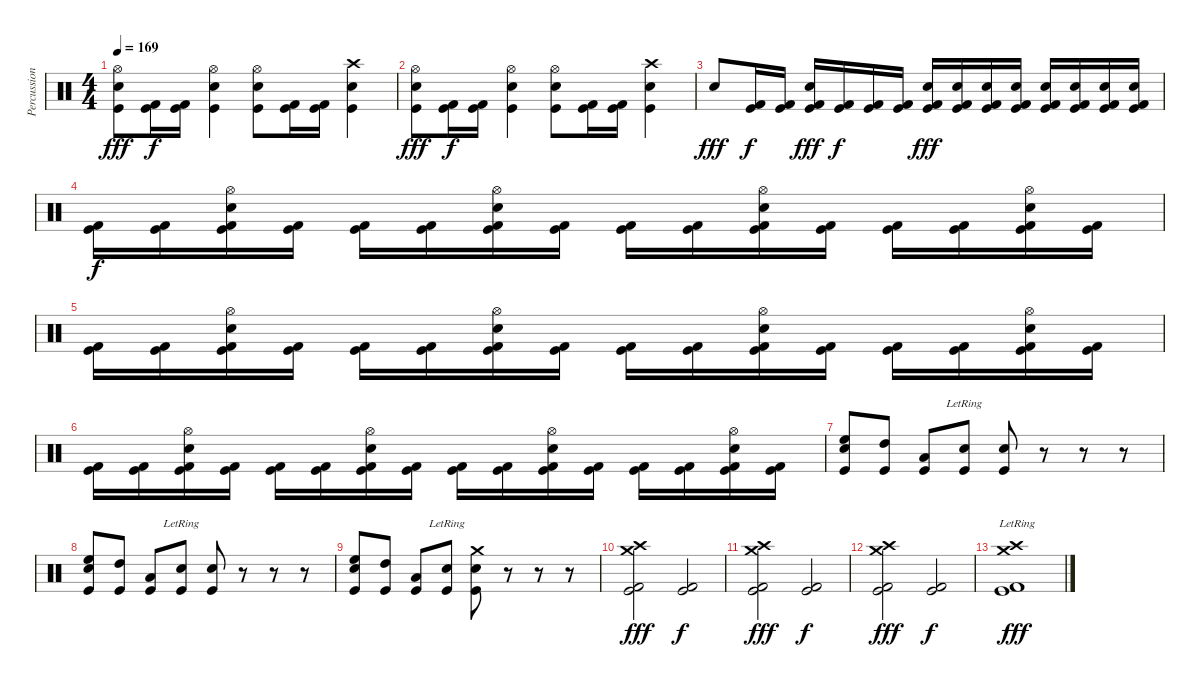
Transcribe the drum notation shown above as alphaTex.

\track ("Percussion" "Percussion") {instrument percussion}
\staff {score}
\articulation defaults
\ts (4 4)
\tempo 169
\clef neutral
\ks c
("Hi-Hat (open)" "Electric Snare (hit)" "Kick (hit)").8{dy fff} ("Kick (hit) 2" "Kick (hit)").16{dy f} ("Kick (hit) 2" "Kick (hit)").16 ("Hi-Hat (open)" "Electric Snare (hit)" "Kick (hit)").4 ("Hi-Hat (open)" "Electric Snare (hit)" "Kick (hit)").8 ("Kick (hit) 2" "Kick (hit)").16 ("Kick (hit) 2" "Kick (hit)").16 ("Crash high (hit)" "Electric Snare (hit)" "Kick (hit)").4 |
("Hi-Hat (open)" "Electric Snare (hit)" "Kick (hit)").8{dy fff} ("Kick (hit) 2" "Kick (hit)").16{dy f} ("Kick (hit) 2" "Kick (hit)").16 ("Hi-Hat (open)" "Electric Snare (hit)" "Kick (hit)").4 ("Hi-Hat (open)" "Electric Snare (hit)" "Kick (hit)").8 ("Kick (hit) 2" "Kick (hit)").16 ("Kick (hit) 2" "Kick (hit)").16 ("Crash high (hit)" "Electric Snare (hit)" "Kick (hit)").4 |
"Electric Snare (hit)".8{dy fff} ("Kick (hit) 2" "Kick (hit)").16{dy f} ("Kick (hit) 2" "Kick (hit)").16 ("Kick (hit) 2" "Electric Snare (hit)" "Kick (hit)").16{dy fff} ("Kick (hit) 2" "Kick (hit)").16{dy f} ("Kick (hit) 2" "Kick (hit)").16 ("Kick (hit) 2" "Kick (hit)").16 ("Kick (hit) 2" "Snare (hit) 2" "Kick (hit)").16{dy fff} ("Kick (hit) 2" "Snare (hit) 2" "Kick (hit)").16 ("Kick (hit) 2" "Snare (hit) 2" "Kick (hit)").16 ("Kick (hit) 2" "Snare (hit) 2" "Kick (hit)").16 ("Kick (hit) 2" "Snare (hit) 2" "Kick (hit)").16 ("Kick (hit) 2" "Snare (hit) 2" "Kick (hit)").16 ("Kick (hit) 2" "Snare (hit) 2" "Kick (hit)").16 ("Kick (hit) 2" "Snare (hit) 2" "Kick (hit)").16 |
("Kick (hit) 2" "Kick (hit)").16{dy f} ("Kick (hit) 2" "Kick (hit)").16 ("Hi-Hat (open)" "Electric Snare (hit)" "Kick (hit) 2" "Kick (hit)").16 ("Kick (hit) 2" "Kick (hit)").16 ("Kick (hit) 2" "Kick (hit)").16 ("Kick (hit) 2" "Kick (hit)").16 ("Hi-Hat (open)" "Electric Snare (hit)" "Kick (hit) 2" "Kick (hit)").16 ("Kick (hit) 2" "Kick (hit)").16 ("Kick (hit) 2" "Kick (hit)").16 ("Kick (hit) 2" "Kick (hit)").16 ("Hi-Hat (open)" "Electric Snare (hit)" "Kick (hit) 2" "Kick (hit)").16 ("Kick (hit) 2" "Kick (hit)").16 ("Kick (hit) 2" "Kick (hit)").16 ("Kick (hit) 2" "Kick (hit)").16 ("Hi-Hat (open)" "Electric Snare (hit)" "Kick (hit) 2" "Kick (hit)").16 ("Kick (hit) 2" "Kick (hit)").16 |
("Kick (hit) 2" "Kick (hit)").16 ("Kick (hit) 2" "Kick (hit)").16 ("Hi-Hat (open)" "Electric Snare (hit)" "Kick (hit) 2" "Kick (hit)").16 ("Kick (hit) 2" "Kick (hit)").16 ("Kick (hit) 2" "Kick (hit)").16 ("Kick (hit) 2" "Kick (hit)").16 ("Hi-Hat (open)" "Electric Snare (hit)" "Kick (hit) 2" "Kick (hit)").16 ("Kick (hit) 2" "Kick (hit)").16 ("Kick (hit) 2" "Kick (hit)").16 ("Kick (hit) 2" "Kick (hit)").16 ("Hi-Hat (open)" "Electric Snare (hit)" "Kick (hit) 2" "Kick (hit)").16 ("Kick (hit) 2" "Kick (hit)").16 ("Kick (hit) 2" "Kick (hit)").16 ("Kick (hit) 2" "Kick (hit)").16 ("Hi-Hat (open)" "Electric Snare (hit)" "Kick (hit) 2" "Kick (hit)").16 ("Kick (hit) 2" "Kick (hit)").16 |
("Kick (hit) 2" "Kick (hit)").16 ("Kick (hit) 2" "Kick (hit)").16 ("Hi-Hat (open)" "Electric Snare (hit)" "Kick (hit) 2" "Kick (hit)").16 ("Kick (hit) 2" "Kick (hit)").16 ("Kick (hit) 2" "Kick (hit)").16 ("Kick (hit) 2" "Kick (hit)").16 ("Hi-Hat (open)" "Electric Snare (hit)" "Kick (hit) 2" "Kick (hit)").16 ("Kick (hit) 2" "Kick (hit)").16 ("Kick (hit) 2" "Kick (hit)").16 ("Kick (hit) 2" "Kick (hit)").16 ("Hi-Hat (open)" "Electric Snare (hit)" "Kick (hit) 2" "Kick (hit)").16 ("Kick (hit) 2" "Kick (hit)").16 ("Kick (hit) 2" "Kick (hit)").16 ("Kick (hit) 2" "Kick (hit)").16 ("Hi-Hat (open)" "Electric Snare (hit)" "Kick (hit) 2" "Kick (hit)").16 ("Kick (hit) 2" "Kick (hit)").16 |
("High Floor Tom (hit)" "Snare (hit) 2" "Kick (hit)").8 ("High Tom (hit)" "Kick (hit)").8 ("Low Tom (hit)" "Kick (hit)").8 ("Snare (hit) 2"{lr} "Kick (hit)").8 ("Snare (hit) 2" "Kick (hit)").8 r.8 r.8 r.8 |
("High Floor Tom (hit)" "Snare (hit) 2" "Kick (hit)").8 ("High Tom (hit)" "Kick (hit)").8 ("Low Tom (hit)" "Kick (hit)").8 ("Snare (hit) 2"{lr} "Kick (hit)").8 ("Snare (hit) 2" "Kick (hit)").8 r.8 r.8 r.8 |
("High Floor Tom (hit)" "Snare (hit) 2" "Kick (hit)").8 ("High Tom (hit)" "Kick (hit)").8 ("Low Tom (hit)" "Kick (hit)").8 ("Snare (hit) 2"{lr} "Kick (hit)").8 ("Crash medium (hit)" "Snare (hit) 2" "Kick (hit)").8 r.8 r.8 r.8 |
("Crash high (hit)" "Crash medium (hit)" "Kick (hit) 2" "Kick (hit)").2{dy fff} ("Kick (hit) 2" "Kick (hit)").2{dy f} |
("Crash high (hit)" "Crash medium (hit)" "Kick (hit) 2" "Kick (hit)").2{dy fff} ("Kick (hit) 2" "Kick (hit)").2{dy f} |
("Crash high (hit)" "Crash medium (hit)" "Kick (hit) 2" "Kick (hit)").2{dy fff} ("Kick (hit) 2" "Kick (hit)").2{dy f} |
("Crash high (hit)"{lr} "Crash medium (hit)" "Kick (hit) 2" "Kick (hit)").1{dy fff}
